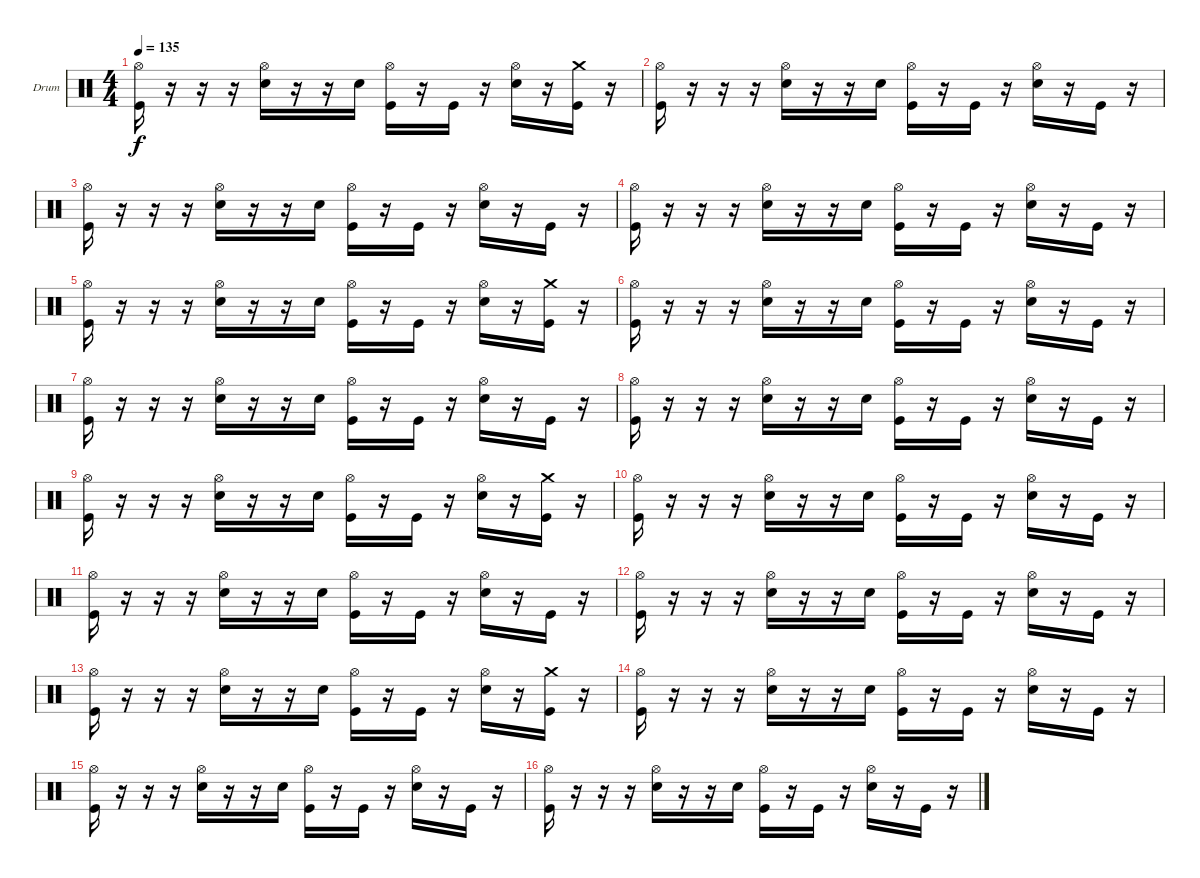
\defaultSystemsLayout 4
\bracketExtendMode groupsimilarinstruments
\firstSystemTrackNameOrientation horizontal
\otherSystemsTrackNameOrientation horizontal
\track ("Drum" "Drum") {instrument percussion}
\staff {score}
\articulation defaults
\ts (4 4)
\tempo 135
\clef neutral
\ks c
("Hi-Hat (open)" "Kick (hit)").16{dy f} r.16 r.16 r.16 ("Hi-Hat (open)" "Snare (hit) 2").16 r.16 r.16 "Snare (hit) 2".16 ("Hi-Hat (open)" "Kick (hit)").16 r.16 "Kick (hit)".16 r.16 ("Hi-Hat (open)" "Snare (hit) 2").16 r.16 ("Crash medium (hit)" "Kick (hit)").16 r.16 |
("Hi-Hat (open)" "Kick (hit)").16 r.16 r.16 r.16 ("Hi-Hat (open)" "Snare (hit) 2").16 r.16 r.16 "Snare (hit) 2".16 ("Hi-Hat (open)" "Kick (hit)").16 r.16 "Kick (hit)".16 r.16 ("Hi-Hat (open)" "Snare (hit) 2").16 r.16 "Kick (hit)".16 r.16 |
("Hi-Hat (open)" "Kick (hit)").16 r.16 r.16 r.16 ("Hi-Hat (open)" "Snare (hit) 2").16 r.16 r.16 "Snare (hit) 2".16 ("Hi-Hat (open)" "Kick (hit)").16 r.16 "Kick (hit)".16 r.16 ("Hi-Hat (open)" "Snare (hit) 2").16 r.16 "Kick (hit)".16 r.16 |
("Hi-Hat (open)" "Kick (hit)").16 r.16 r.16 r.16 ("Hi-Hat (open)" "Snare (hit) 2").16 r.16 r.16 "Snare (hit) 2".16 ("Hi-Hat (open)" "Kick (hit)").16 r.16 "Kick (hit)".16 r.16 ("Hi-Hat (open)" "Snare (hit) 2").16 r.16 "Kick (hit)".16 r.16 |
("Hi-Hat (open)" "Kick (hit)").16 r.16 r.16 r.16 ("Hi-Hat (open)" "Snare (hit) 2").16 r.16 r.16 "Snare (hit) 2".16 ("Hi-Hat (open)" "Kick (hit)").16 r.16 "Kick (hit)".16 r.16 ("Hi-Hat (open)" "Snare (hit) 2").16 r.16 ("Crash medium (hit)" "Kick (hit)").16 r.16 |
("Hi-Hat (open)" "Kick (hit)").16 r.16 r.16 r.16 ("Hi-Hat (open)" "Snare (hit) 2").16 r.16 r.16 "Snare (hit) 2".16 ("Hi-Hat (open)" "Kick (hit)").16 r.16 "Kick (hit)".16 r.16 ("Hi-Hat (open)" "Snare (hit) 2").16 r.16 "Kick (hit)".16 r.16 |
("Hi-Hat (open)" "Kick (hit)").16 r.16 r.16 r.16 ("Hi-Hat (open)" "Snare (hit) 2").16 r.16 r.16 "Snare (hit) 2".16 ("Hi-Hat (open)" "Kick (hit)").16 r.16 "Kick (hit)".16 r.16 ("Hi-Hat (open)" "Snare (hit) 2").16 r.16 "Kick (hit)".16 r.16 |
("Hi-Hat (open)" "Kick (hit)").16 r.16 r.16 r.16 ("Hi-Hat (open)" "Snare (hit) 2").16 r.16 r.16 "Snare (hit) 2".16 ("Hi-Hat (open)" "Kick (hit)").16 r.16 "Kick (hit)".16 r.16 ("Hi-Hat (open)" "Snare (hit) 2").16 r.16 "Kick (hit)".16 r.16 |
("Hi-Hat (open)" "Kick (hit)").16 r.16 r.16 r.16 ("Hi-Hat (open)" "Snare (hit) 2").16 r.16 r.16 "Snare (hit) 2".16 ("Hi-Hat (open)" "Kick (hit)").16 r.16 "Kick (hit)".16 r.16 ("Hi-Hat (open)" "Snare (hit) 2").16 r.16 ("Crash medium (hit)" "Kick (hit)").16 r.16 |
("Hi-Hat (open)" "Kick (hit)").16 r.16 r.16 r.16 ("Hi-Hat (open)" "Snare (hit) 2").16 r.16 r.16 "Snare (hit) 2".16 ("Hi-Hat (open)" "Kick (hit)").16 r.16 "Kick (hit)".16 r.16 ("Hi-Hat (open)" "Snare (hit) 2").16 r.16 "Kick (hit)".16 r.16 |
("Hi-Hat (open)" "Kick (hit)").16 r.16 r.16 r.16 ("Hi-Hat (open)" "Snare (hit) 2").16 r.16 r.16 "Snare (hit) 2".16 ("Hi-Hat (open)" "Kick (hit)").16 r.16 "Kick (hit)".16 r.16 ("Hi-Hat (open)" "Snare (hit) 2").16 r.16 "Kick (hit)".16 r.16 |
("Hi-Hat (open)" "Kick (hit)").16 r.16 r.16 r.16 ("Hi-Hat (open)" "Snare (hit) 2").16 r.16 r.16 "Snare (hit) 2".16 ("Hi-Hat (open)" "Kick (hit)").16 r.16 "Kick (hit)".16 r.16 ("Hi-Hat (open)" "Snare (hit) 2").16 r.16 "Kick (hit)".16 r.16 |
("Hi-Hat (open)" "Kick (hit)").16 r.16 r.16 r.16 ("Hi-Hat (open)" "Snare (hit) 2").16 r.16 r.16 "Snare (hit) 2".16 ("Hi-Hat (open)" "Kick (hit)").16 r.16 "Kick (hit)".16 r.16 ("Hi-Hat (open)" "Snare (hit) 2").16 r.16 ("Crash medium (hit)" "Kick (hit)").16 r.16 |
("Hi-Hat (open)" "Kick (hit)").16 r.16 r.16 r.16 ("Hi-Hat (open)" "Snare (hit) 2").16 r.16 r.16 "Snare (hit) 2".16 ("Hi-Hat (open)" "Kick (hit)").16 r.16 "Kick (hit)".16 r.16 ("Hi-Hat (open)" "Snare (hit) 2").16 r.16 "Kick (hit)".16 r.16 |
("Hi-Hat (open)" "Kick (hit)").16 r.16 r.16 r.16 ("Hi-Hat (open)" "Snare (hit) 2").16 r.16 r.16 "Snare (hit) 2".16 ("Hi-Hat (open)" "Kick (hit)").16 r.16 "Kick (hit)".16 r.16 ("Hi-Hat (open)" "Snare (hit) 2").16 r.16 "Kick (hit)".16 r.16 |
("Hi-Hat (open)" "Kick (hit)").16 r.16 r.16 r.16 ("Hi-Hat (open)" "Snare (hit) 2").16 r.16 r.16 "Snare (hit) 2".16 ("Hi-Hat (open)" "Kick (hit)").16 r.16 "Kick (hit)".16 r.16 ("Hi-Hat (open)" "Snare (hit) 2").16 r.16 "Kick (hit)".16 r.16
